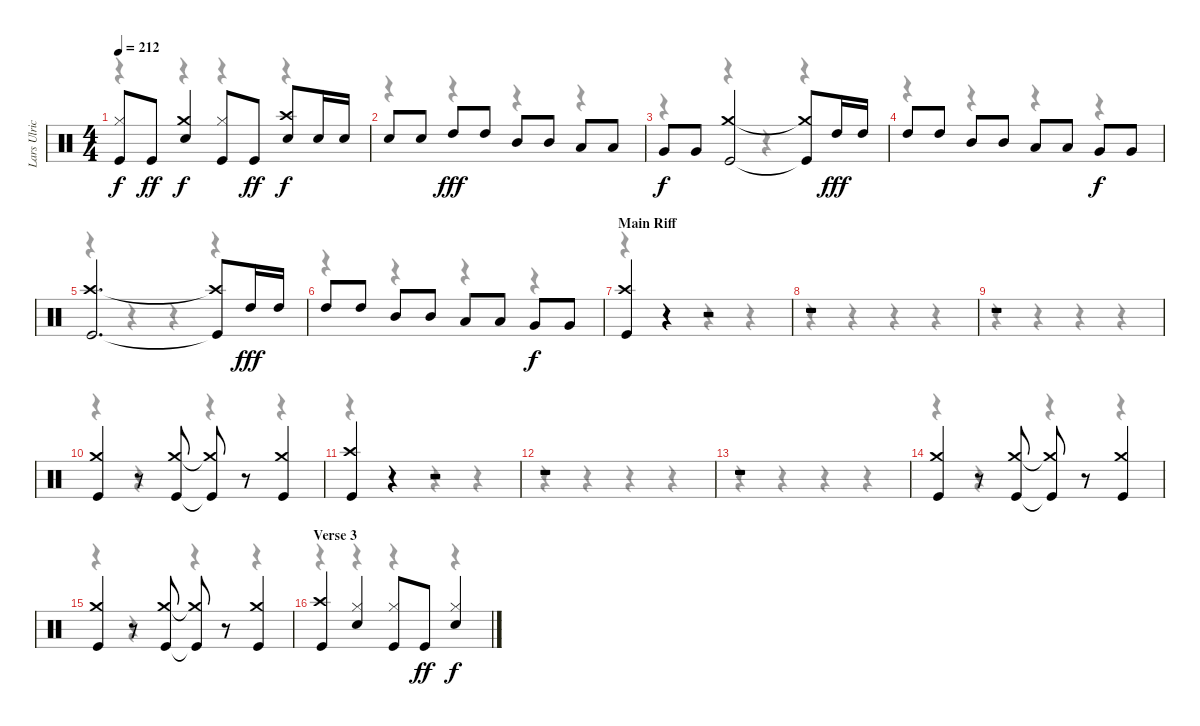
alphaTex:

\track ("Lars Ulrich" "Lars Ulric") {instrument percussion}
\staff {score}
\articulation defaults
\voice
\ts (4 4)
\tempo 212
\clef neutral
\ks c
("Hi-Hat (closed)" "Kick (hit)").8{dy f} "Kick (hit)".8{dy ff} ("Crash medium (hit)" "Snare (hit) 2").4{dy f} ("Hi-Hat (closed)" "Kick (hit)").8 "Kick (hit)".8{dy ff} ("Crash high (hit)" "Snare (hit) 2").8{dy f} "Snare (hit) 2".16 "Snare (hit) 2".16 |
"Snare (hit) 2".8 "Snare (hit) 2".8 "High Tom (hit)".8{dy fff} "High Tom (hit)".8 "Mid Tom (hit)".8 "Mid Tom (hit)".8 "Low Tom (hit)".8 "Low Tom (hit)".8 |
"Very Low Tom (hit)".8{dy f} "Very Low Tom (hit)".8 ("Crash medium (hit)" "Kick (hit)").2 ("Crash medium (hit)"{t} "Kick (hit)"{t}).8 "High Tom (hit)".16{dy fff} "High Tom (hit)".16 |
"High Tom (hit)".8 "High Tom (hit)".8 "Mid Tom (hit)".8 "Mid Tom (hit)".8 "Low Tom (hit)".8 "Low Tom (hit)".8 "Very Low Tom (hit)".8{dy f} "Very Low Tom (hit)".8 |
("Crash high (hit)" "Kick (hit)").2{d} ("Crash high (hit)"{t} "Kick (hit)"{t}).8 "High Tom (hit)".16{dy fff} "High Tom (hit)".16 |
"High Tom (hit)".8 "High Tom (hit)".8 "Mid Tom (hit)".8 "Mid Tom (hit)".8 "Low Tom (hit)".8 "Low Tom (hit)".8 "Very Low Tom (hit)".8{dy f} "Very Low Tom (hit)".8 |
\section ("" "Main Riff")
("Crash high (hit)" "Kick (hit)").4 r.4 r.2 |
r.1 |
r.1 |
("Crash medium (hit)" "Kick (hit)").4 r.8 ("Crash medium (hit)" "Kick (hit)").8 ("Crash medium (hit)"{t} "Kick (hit)"{t}).8 r.8 ("Crash medium (hit)" "Kick (hit)").4 |
("Crash high (hit)" "Kick (hit)").4 r.4 r.2 |
r.1 |
r.1 |
("Crash medium (hit)" "Kick (hit)").4 r.8 ("Crash medium (hit)" "Kick (hit)").8 ("Crash medium (hit)"{t} "Kick (hit)"{t}).8 r.8 ("Crash medium (hit)" "Kick (hit)").4 |
("Crash medium (hit)" "Kick (hit)").4 r.8 ("Crash medium (hit)" "Kick (hit)").8 ("Crash medium (hit)"{t} "Kick (hit)"{t}).8 r.8 ("Crash medium (hit)" "Kick (hit)").4 |
\section ("" "Verse 3")
("Crash high (hit)" "Kick (hit)").4 ("Hi-Hat (closed)" "Snare (hit) 2").4 ("Hi-Hat (closed)" "Kick (hit)").8 "Kick (hit)".8{dy ff} ("Hi-Hat (closed)" "Snare (hit) 2").4{dy f}
\voice
\clef neutral
\ottava regular
\simile none
\ks c
r.4{dy f} r.4 r.4 r.4 |
r.4 r.4 r.4 r.4 |
r.4 r.4 r.4 r.4 |
r.4 r.4 r.4 r.4 |
r.4 r.4 r.4 r.4 |
r.4 r.4 r.4 r.4 |
r.4 r.4 r.4 r.4 |
r.4 r.4 r.4 r.4 |
r.4 r.4 r.4 r.4 |
r.4 r.4 r.4 r.4 |
r.4 r.4 r.4 r.4 |
r.4 r.4 r.4 r.4 |
r.4 r.4 r.4 r.4 |
r.4 r.4 r.4 r.4 |
r.4 r.4 r.4 r.4 |
r.4 r.4 r.4 r.4
